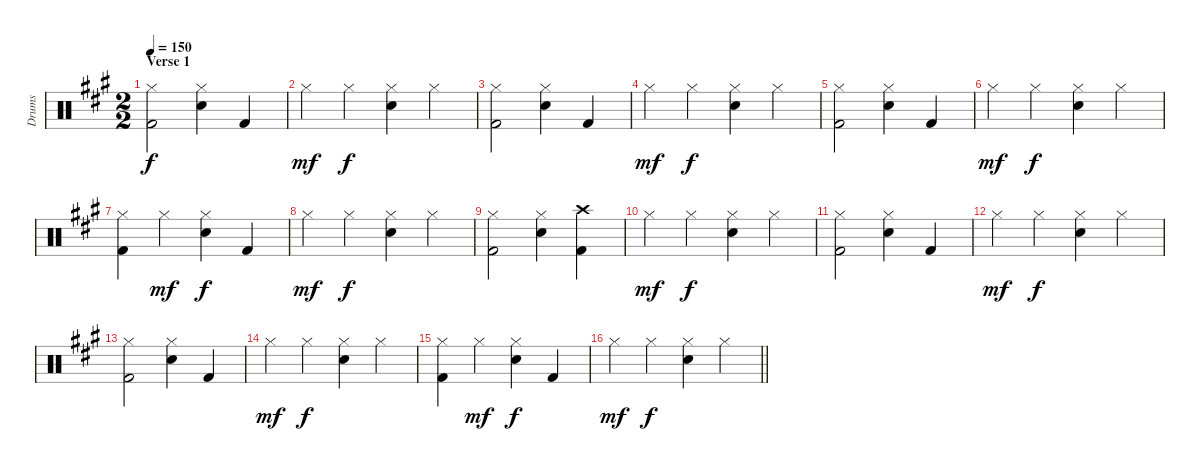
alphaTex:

\track ("Drums" "Drums") {instrument percussion}
\staff {score}
\articulation defaults
\ts (2 2)
\section ("" "Verse 1")
\tempo 150
\clef neutral
\ks a
("Hi-Hat (closed)" "Kick (hit) 2").2{dy f} ("Hi-Hat (closed)" "Electric Snare (hit)").4 "Kick (hit) 2".4 |
"Hi-Hat (closed)".4{dy mf} "Hi-Hat (closed)".4{dy f} ("Hi-Hat (closed)" "Electric Snare (hit)").4 "Hi-Hat (closed)".4 |
("Hi-Hat (closed)" "Kick (hit) 2").2 ("Hi-Hat (closed)" "Electric Snare (hit)").4 "Kick (hit) 2".4 |
"Hi-Hat (closed)".4{dy mf} "Hi-Hat (closed)".4{dy f} ("Hi-Hat (closed)" "Electric Snare (hit)").4 "Hi-Hat (closed)".4 |
("Hi-Hat (closed)" "Kick (hit) 2").2 ("Hi-Hat (closed)" "Electric Snare (hit)").4 "Kick (hit) 2".4 |
"Hi-Hat (closed)".4{dy mf} "Hi-Hat (closed)".4{dy f} ("Hi-Hat (closed)" "Electric Snare (hit)").4 "Hi-Hat (closed)".4 |
("Hi-Hat (closed)" "Kick (hit) 2").4 "Hi-Hat (closed)".4{dy mf} ("Hi-Hat (closed)" "Electric Snare (hit)").4{dy f} "Kick (hit) 2".4 |
"Hi-Hat (closed)".4{dy mf} "Hi-Hat (closed)".4{dy f} ("Hi-Hat (closed)" "Electric Snare (hit)").4 "Hi-Hat (closed)".4 |
("Hi-Hat (closed)" "Kick (hit) 2").2 ("Hi-Hat (closed)" "Electric Snare (hit)").4 ("Crash high (hit)" "Kick (hit) 2").4 |
"Hi-Hat (closed)".4{dy mf} "Hi-Hat (closed)".4{dy f} ("Hi-Hat (closed)" "Electric Snare (hit)").4 "Hi-Hat (closed)".4 |
("Hi-Hat (closed)" "Kick (hit) 2").2 ("Hi-Hat (closed)" "Electric Snare (hit)").4 "Kick (hit) 2".4 |
"Hi-Hat (closed)".4{dy mf} "Hi-Hat (closed)".4{dy f} ("Hi-Hat (closed)" "Electric Snare (hit)").4 "Hi-Hat (closed)".4 |
("Hi-Hat (closed)" "Kick (hit) 2").2 ("Hi-Hat (closed)" "Electric Snare (hit)").4 "Kick (hit) 2".4 |
"Hi-Hat (closed)".4{dy mf} "Hi-Hat (closed)".4{dy f} ("Hi-Hat (closed)" "Electric Snare (hit)").4 "Hi-Hat (closed)".4 |
("Hi-Hat (closed)" "Kick (hit) 2").4 "Hi-Hat (closed)".4{dy mf} ("Hi-Hat (closed)" "Electric Snare (hit)").4{dy f} "Kick (hit) 2".4 |
\barLineRight lightlight "Hi-Hat (closed)".4{dy mf} "Hi-Hat (closed)".4{dy f}
("Hi-Hat (closed)" "Electric Snare (hit)").4 "Hi-Hat (closed)".4
